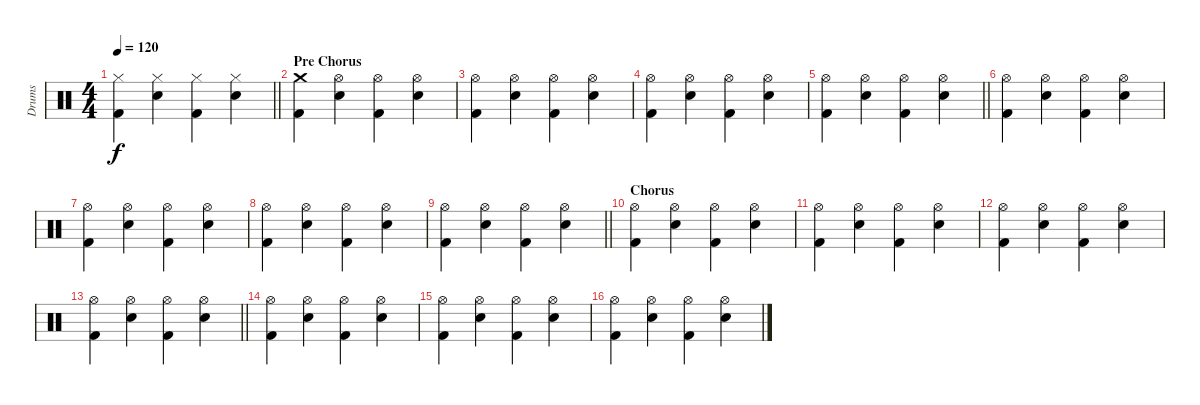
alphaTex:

\track ("Drums" "Drums") {instrument percussion}
\staff {score}
\articulation defaults
\ts (4 4)
\tempo 120
\clef neutral
\barLineRight lightlight
\ks c
("Hi-Hat (closed)" "Kick (hit) 2").4{dy f} ("Hi-Hat (closed)" "Electric Snare (hit)").4 ("Hi-Hat (closed)" "Kick (hit) 2").4 ("Hi-Hat (closed)" "Electric Snare (hit)").4 |
\section ("" "Pre Chorus")
("Crash medium (hit)" "Kick (hit) 2").4 ("Hi-Hat (open)" "Electric Snare (hit)").4 ("Hi-Hat (open)" "Kick (hit) 2").4 ("Hi-Hat (open)" "Electric Snare (hit)").4 |
("Hi-Hat (open)" "Kick (hit) 2").4 ("Hi-Hat (open)" "Electric Snare (hit)").4 ("Hi-Hat (open)" "Kick (hit) 2").4 ("Hi-Hat (open)" "Electric Snare (hit)").4 |
("Hi-Hat (open)" "Kick (hit) 2").4 ("Hi-Hat (open)" "Electric Snare (hit)").4 ("Hi-Hat (open)" "Kick (hit) 2").4 ("Hi-Hat (open)" "Electric Snare (hit)").4 |
\barLineRight lightlight
("Hi-Hat (open)" "Kick (hit) 2").4 ("Hi-Hat (open)" "Electric Snare (hit)").4 ("Hi-Hat (open)" "Kick (hit) 2").4 ("Hi-Hat (open)" "Electric Snare (hit)").4 |
("Hi-Hat (open)" "Kick (hit) 2").4 ("Hi-Hat (open)" "Electric Snare (hit)").4 ("Hi-Hat (open)" "Kick (hit) 2").4 ("Hi-Hat (open)" "Electric Snare (hit)").4 |
("Hi-Hat (open)" "Kick (hit) 2").4 ("Hi-Hat (open)" "Electric Snare (hit)").4 ("Hi-Hat (open)" "Kick (hit) 2").4 ("Hi-Hat (open)" "Electric Snare (hit)").4 |
("Hi-Hat (open)" "Kick (hit) 2").4 ("Hi-Hat (open)" "Electric Snare (hit)").4 ("Hi-Hat (open)" "Kick (hit) 2").4 ("Hi-Hat (open)" "Electric Snare (hit)").4 |
\barLineRight lightlight
("Hi-Hat (open)" "Kick (hit) 2").4 ("Hi-Hat (open)" "Electric Snare (hit)").4 ("Hi-Hat (open)" "Kick (hit) 2").4 ("Hi-Hat (open)" "Electric Snare (hit)").4 |
\section ("" "Chorus")
("Hi-Hat (open)" "Kick (hit) 2").4 ("Hi-Hat (open)" "Electric Snare (hit)").4 ("Hi-Hat (open)" "Kick (hit) 2").4 ("Hi-Hat (open)" "Electric Snare (hit)").4 |
("Hi-Hat (open)" "Kick (hit) 2").4 ("Hi-Hat (open)" "Electric Snare (hit)").4 ("Hi-Hat (open)" "Kick (hit) 2").4 ("Hi-Hat (open)" "Electric Snare (hit)").4 |
("Hi-Hat (open)" "Kick (hit) 2").4 ("Hi-Hat (open)" "Electric Snare (hit)").4 ("Hi-Hat (open)" "Kick (hit) 2").4 ("Hi-Hat (open)" "Electric Snare (hit)").4 |
\barLineRight lightlight
("Hi-Hat (open)" "Kick (hit) 2").4 ("Hi-Hat (open)" "Electric Snare (hit)").4 ("Hi-Hat (open)" "Kick (hit) 2").4 ("Hi-Hat (open)" "Electric Snare (hit)").4 |
("Hi-Hat (open)" "Kick (hit) 2").4 ("Hi-Hat (open)" "Electric Snare (hit)").4 ("Hi-Hat (open)" "Kick (hit) 2").4 ("Hi-Hat (open)" "Electric Snare (hit)").4 |
("Hi-Hat (open)" "Kick (hit) 2").4 ("Hi-Hat (open)" "Electric Snare (hit)").4 ("Hi-Hat (open)" "Kick (hit) 2").4 ("Hi-Hat (open)" "Electric Snare (hit)").4 |
("Hi-Hat (open)" "Kick (hit) 2").4 ("Hi-Hat (open)" "Electric Snare (hit)").4 ("Hi-Hat (open)" "Kick (hit) 2").4 ("Hi-Hat (open)" "Electric Snare (hit)").4
